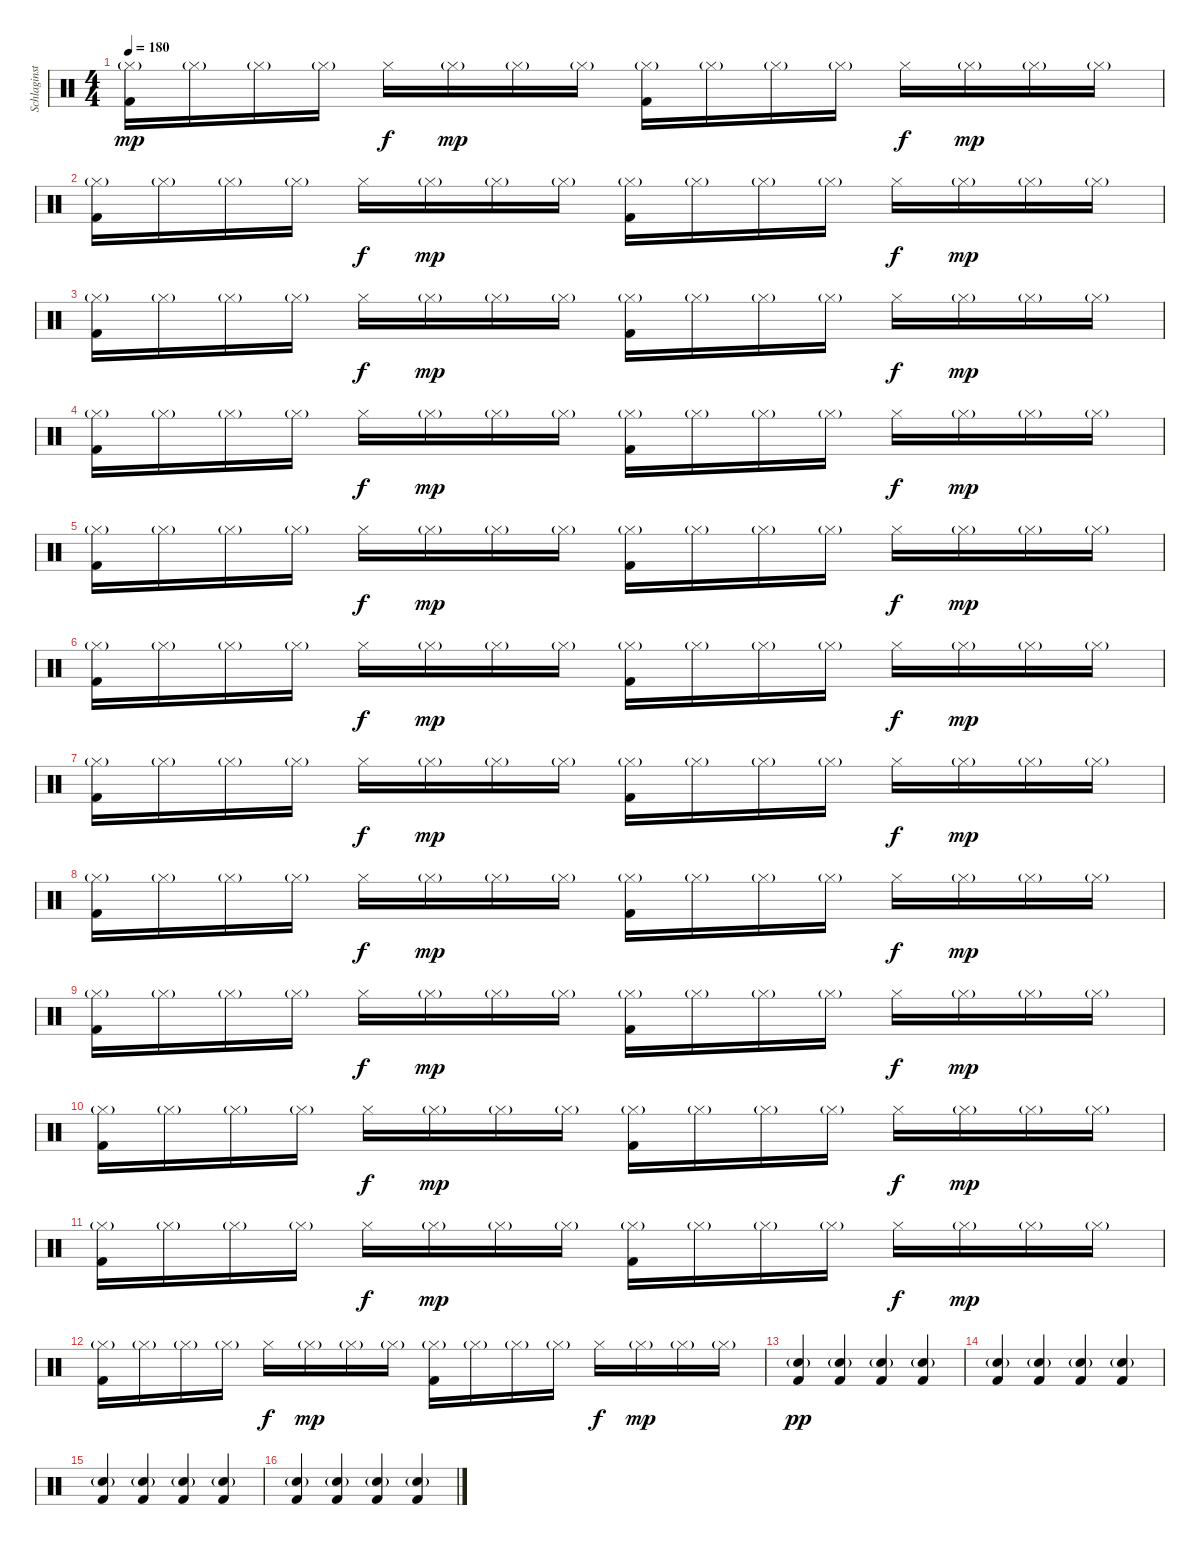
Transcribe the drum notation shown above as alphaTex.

\track ("Schlaginstrumente - Auswahl" "Schlaginst") {instrument percussion}
\staff {score}
\articulation defaults
\ts (4 4)
\tempo 180
\clef neutral
\ks c
("Hi-Hat (closed)"{g} "Kick (hit) 2").16{dy mp} "Hi-Hat (closed)"{g}.16 "Hi-Hat (closed)"{g}.16 "Hi-Hat (closed)"{g}.16 "Hi-Hat (closed)".16{dy f} "Hi-Hat (closed)"{g}.16{dy mp} "Hi-Hat (closed)"{g}.16 "Hi-Hat (closed)"{g}.16 ("Hi-Hat (closed)"{g} "Kick (hit) 2").16 "Hi-Hat (closed)"{g}.16 "Hi-Hat (closed)"{g}.16 "Hi-Hat (closed)"{g}.16 "Hi-Hat (closed)".16{dy f} "Hi-Hat (closed)"{g}.16{dy mp} "Hi-Hat (closed)"{g}.16 "Hi-Hat (closed)"{g}.16 |
("Hi-Hat (closed)"{g} "Kick (hit) 2").16 "Hi-Hat (closed)"{g}.16 "Hi-Hat (closed)"{g}.16 "Hi-Hat (closed)"{g}.16 "Hi-Hat (closed)".16{dy f} "Hi-Hat (closed)"{g}.16{dy mp} "Hi-Hat (closed)"{g}.16 "Hi-Hat (closed)"{g}.16 ("Hi-Hat (closed)"{g} "Kick (hit) 2").16 "Hi-Hat (closed)"{g}.16 "Hi-Hat (closed)"{g}.16 "Hi-Hat (closed)"{g}.16 "Hi-Hat (closed)".16{dy f} "Hi-Hat (closed)"{g}.16{dy mp} "Hi-Hat (closed)"{g}.16 "Hi-Hat (closed)"{g}.16 |
("Hi-Hat (closed)"{g} "Kick (hit) 2").16 "Hi-Hat (closed)"{g}.16 "Hi-Hat (closed)"{g}.16 "Hi-Hat (closed)"{g}.16 "Hi-Hat (closed)".16{dy f} "Hi-Hat (closed)"{g}.16{dy mp} "Hi-Hat (closed)"{g}.16 "Hi-Hat (closed)"{g}.16 ("Hi-Hat (closed)"{g} "Kick (hit) 2").16 "Hi-Hat (closed)"{g}.16 "Hi-Hat (closed)"{g}.16 "Hi-Hat (closed)"{g}.16 "Hi-Hat (closed)".16{dy f} "Hi-Hat (closed)"{g}.16{dy mp} "Hi-Hat (closed)"{g}.16 "Hi-Hat (closed)"{g}.16 |
("Hi-Hat (closed)"{g} "Kick (hit) 2").16 "Hi-Hat (closed)"{g}.16 "Hi-Hat (closed)"{g}.16 "Hi-Hat (closed)"{g}.16 "Hi-Hat (closed)".16{dy f} "Hi-Hat (closed)"{g}.16{dy mp} "Hi-Hat (closed)"{g}.16 "Hi-Hat (closed)"{g}.16 ("Hi-Hat (closed)"{g} "Kick (hit) 2").16 "Hi-Hat (closed)"{g}.16 "Hi-Hat (closed)"{g}.16 "Hi-Hat (closed)"{g}.16 "Hi-Hat (closed)".16{dy f} "Hi-Hat (closed)"{g}.16{dy mp} "Hi-Hat (closed)"{g}.16 "Hi-Hat (closed)"{g}.16 |
("Hi-Hat (closed)"{g} "Kick (hit) 2").16 "Hi-Hat (closed)"{g}.16 "Hi-Hat (closed)"{g}.16 "Hi-Hat (closed)"{g}.16 "Hi-Hat (closed)".16{dy f} "Hi-Hat (closed)"{g}.16{dy mp} "Hi-Hat (closed)"{g}.16 "Hi-Hat (closed)"{g}.16 ("Hi-Hat (closed)"{g} "Kick (hit) 2").16 "Hi-Hat (closed)"{g}.16 "Hi-Hat (closed)"{g}.16 "Hi-Hat (closed)"{g}.16 "Hi-Hat (closed)".16{dy f} "Hi-Hat (closed)"{g}.16{dy mp} "Hi-Hat (closed)"{g}.16 "Hi-Hat (closed)"{g}.16 |
("Hi-Hat (closed)"{g} "Kick (hit) 2").16 "Hi-Hat (closed)"{g}.16 "Hi-Hat (closed)"{g}.16 "Hi-Hat (closed)"{g}.16 "Hi-Hat (closed)".16{dy f} "Hi-Hat (closed)"{g}.16{dy mp} "Hi-Hat (closed)"{g}.16 "Hi-Hat (closed)"{g}.16 ("Hi-Hat (closed)"{g} "Kick (hit) 2").16 "Hi-Hat (closed)"{g}.16 "Hi-Hat (closed)"{g}.16 "Hi-Hat (closed)"{g}.16 "Hi-Hat (closed)".16{dy f} "Hi-Hat (closed)"{g}.16{dy mp} "Hi-Hat (closed)"{g}.16 "Hi-Hat (closed)"{g}.16 |
("Hi-Hat (closed)"{g} "Kick (hit) 2").16 "Hi-Hat (closed)"{g}.16 "Hi-Hat (closed)"{g}.16 "Hi-Hat (closed)"{g}.16 "Hi-Hat (closed)".16{dy f} "Hi-Hat (closed)"{g}.16{dy mp} "Hi-Hat (closed)"{g}.16 "Hi-Hat (closed)"{g}.16 ("Hi-Hat (closed)"{g} "Kick (hit) 2").16 "Hi-Hat (closed)"{g}.16 "Hi-Hat (closed)"{g}.16 "Hi-Hat (closed)"{g}.16 "Hi-Hat (closed)".16{dy f} "Hi-Hat (closed)"{g}.16{dy mp} "Hi-Hat (closed)"{g}.16 "Hi-Hat (closed)"{g}.16 |
("Hi-Hat (closed)"{g} "Kick (hit) 2").16 "Hi-Hat (closed)"{g}.16 "Hi-Hat (closed)"{g}.16 "Hi-Hat (closed)"{g}.16 "Hi-Hat (closed)".16{dy f} "Hi-Hat (closed)"{g}.16{dy mp} "Hi-Hat (closed)"{g}.16 "Hi-Hat (closed)"{g}.16 ("Hi-Hat (closed)"{g} "Kick (hit) 2").16 "Hi-Hat (closed)"{g}.16 "Hi-Hat (closed)"{g}.16 "Hi-Hat (closed)"{g}.16 "Hi-Hat (closed)".16{dy f} "Hi-Hat (closed)"{g}.16{dy mp} "Hi-Hat (closed)"{g}.16 "Hi-Hat (closed)"{g}.16 |
("Hi-Hat (closed)"{g} "Kick (hit) 2").16 "Hi-Hat (closed)"{g}.16 "Hi-Hat (closed)"{g}.16 "Hi-Hat (closed)"{g}.16 "Hi-Hat (closed)".16{dy f} "Hi-Hat (closed)"{g}.16{dy mp} "Hi-Hat (closed)"{g}.16 "Hi-Hat (closed)"{g}.16 ("Hi-Hat (closed)"{g} "Kick (hit) 2").16 "Hi-Hat (closed)"{g}.16 "Hi-Hat (closed)"{g}.16 "Hi-Hat (closed)"{g}.16 "Hi-Hat (closed)".16{dy f} "Hi-Hat (closed)"{g}.16{dy mp} "Hi-Hat (closed)"{g}.16 "Hi-Hat (closed)"{g}.16 |
("Hi-Hat (closed)"{g} "Kick (hit) 2").16 "Hi-Hat (closed)"{g}.16 "Hi-Hat (closed)"{g}.16 "Hi-Hat (closed)"{g}.16 "Hi-Hat (closed)".16{dy f} "Hi-Hat (closed)"{g}.16{dy mp} "Hi-Hat (closed)"{g}.16 "Hi-Hat (closed)"{g}.16 ("Hi-Hat (closed)"{g} "Kick (hit) 2").16 "Hi-Hat (closed)"{g}.16 "Hi-Hat (closed)"{g}.16 "Hi-Hat (closed)"{g}.16 "Hi-Hat (closed)".16{dy f} "Hi-Hat (closed)"{g}.16{dy mp} "Hi-Hat (closed)"{g}.16 "Hi-Hat (closed)"{g}.16 |
("Hi-Hat (closed)"{g} "Kick (hit) 2").16 "Hi-Hat (closed)"{g}.16 "Hi-Hat (closed)"{g}.16 "Hi-Hat (closed)"{g}.16 "Hi-Hat (closed)".16{dy f} "Hi-Hat (closed)"{g}.16{dy mp} "Hi-Hat (closed)"{g}.16 "Hi-Hat (closed)"{g}.16 ("Hi-Hat (closed)"{g} "Kick (hit) 2").16 "Hi-Hat (closed)"{g}.16 "Hi-Hat (closed)"{g}.16 "Hi-Hat (closed)"{g}.16 "Hi-Hat (closed)".16{dy f} "Hi-Hat (closed)"{g}.16{dy mp} "Hi-Hat (closed)"{g}.16 "Hi-Hat (closed)"{g}.16 |
("Hi-Hat (closed)"{g} "Kick (hit) 2").16 "Hi-Hat (closed)"{g}.16 "Hi-Hat (closed)"{g}.16 "Hi-Hat (closed)"{g}.16 "Hi-Hat (closed)".16{dy f} "Hi-Hat (closed)"{g}.16{dy mp} "Hi-Hat (closed)"{g}.16 "Hi-Hat (closed)"{g}.16 ("Hi-Hat (closed)"{g} "Kick (hit) 2").16 "Hi-Hat (closed)"{g}.16 "Hi-Hat (closed)"{g}.16 "Hi-Hat (closed)"{g}.16 "Hi-Hat (closed)".16{dy f} "Hi-Hat (closed)"{g}.16{dy mp} "Hi-Hat (closed)"{g}.16 "Hi-Hat (closed)"{g}.16 |
("Electric Snare (hit)"{g} "Kick (hit) 2").4{dy pp} ("Electric Snare (hit)"{g} "Kick (hit) 2").4 ("Electric Snare (hit)"{g} "Kick (hit) 2").4 ("Electric Snare (hit)"{g} "Kick (hit) 2").4 |
("Electric Snare (hit)"{g} "Kick (hit) 2").4 ("Electric Snare (hit)"{g} "Kick (hit) 2").4 ("Electric Snare (hit)"{g} "Kick (hit) 2").4 ("Electric Snare (hit)"{g} "Kick (hit) 2").4 |
("Electric Snare (hit)"{g} "Kick (hit) 2").4 ("Electric Snare (hit)"{g} "Kick (hit) 2").4 ("Electric Snare (hit)"{g} "Kick (hit) 2").4 ("Electric Snare (hit)"{g} "Kick (hit) 2").4 |
("Electric Snare (hit)"{g} "Kick (hit) 2").4 ("Electric Snare (hit)"{g} "Kick (hit) 2").4 ("Electric Snare (hit)"{g} "Kick (hit) 2").4 ("Electric Snare (hit)"{g} "Kick (hit) 2").4
